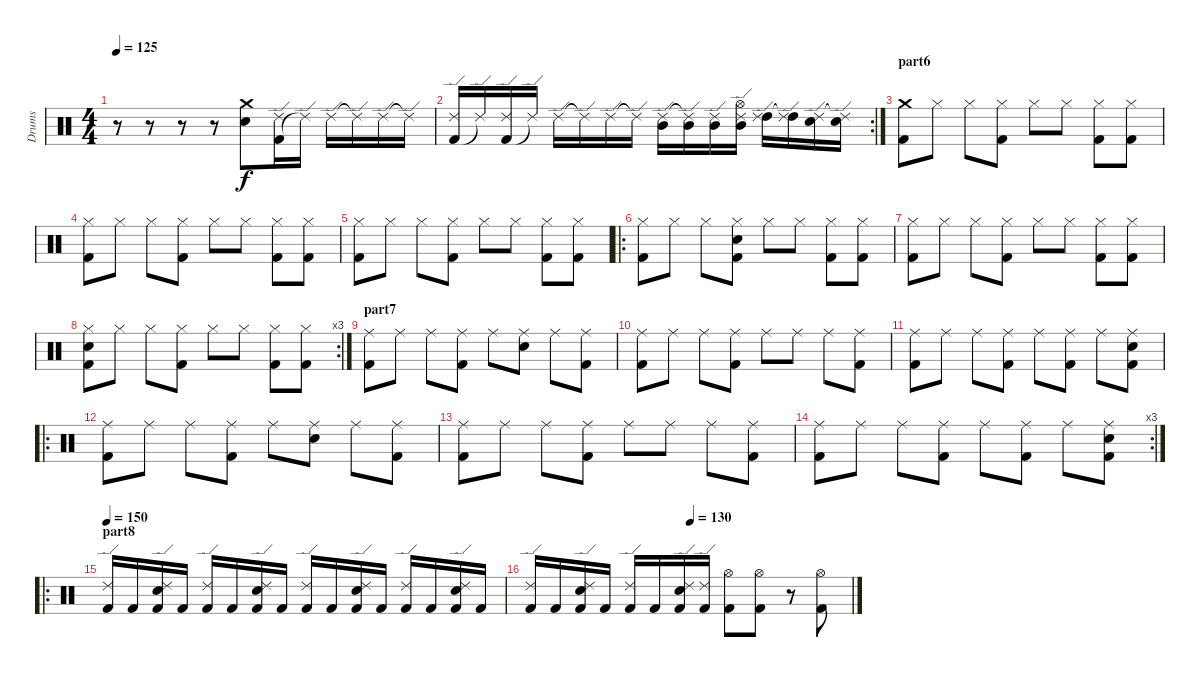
\track ("Drums" "Drums") {instrument percussion}
\staff {score}
\articulation defaults
\ts (4 4)
\tempo 125
\clef neutral
\ks c
r.8{dy f} r.8 r.8 r.8 ("Crash medium (hit)" "Snare (hit) 2").8 ("Kick (hit) 2" "Ride (edge) 2").16 "Ride (edge) 2"{t}.16 "Ride (edge) 2".16 "Ride (edge) 2"{t}.16 "Ride (edge) 2".16 "Ride (edge) 2"{t}.16 |
\rc 2
("Kick (hit) 2" "Ride (edge) 2").16 "Ride (edge) 2"{t}.16 ("Kick (hit) 2" "Ride (edge) 2").16 "Ride (edge) 2"{t}.16 "Ride (edge) 2".16 "Ride (edge) 2"{t}.16 "Ride (edge) 2".16 "Ride (edge) 2"{t}.16 ("Mid Tom (hit)" "Ride (edge) 2").16 ("Mid Tom (hit)" "Ride (edge) 2"{t}).16 ("Mid Tom (hit)" "Ride (edge) 2").16 ("Mid Tom (hit)" "Hi-Hat (open)" "Ride (edge) 2").16 ("High Tom (hit)" "Ride (edge) 2").16 ("High Tom (hit)" "Ride (edge) 2"{t}).16 ("Snare (hit) 2" "Ride (edge) 2").16 ("Snare (hit) 2" "Ride (edge) 2"{t}).16 |
\section ("" "part6")
("Kick (hit) 2" "Crash medium (hit)").8 "Hi-Hat (closed)".8 "Hi-Hat (closed)".8 ("Kick (hit) 2" "Hi-Hat (closed)").8 "Hi-Hat (closed)".8 "Hi-Hat (closed)".8 ("Kick (hit) 2" "Hi-Hat (closed)").8 ("Kick (hit) 2" "Hi-Hat (closed)").8 |
("Kick (hit) 2" "Hi-Hat (closed)").8 "Hi-Hat (closed)".8 "Hi-Hat (closed)".8 ("Kick (hit) 2" "Hi-Hat (closed)").8 "Hi-Hat (closed)".8 "Hi-Hat (closed)".8 ("Kick (hit) 2" "Hi-Hat (closed)").8 ("Kick (hit) 2" "Hi-Hat (closed)").8 |
("Kick (hit) 2" "Hi-Hat (closed)").8 "Hi-Hat (closed)".8 "Hi-Hat (closed)".8 ("Kick (hit) 2" "Hi-Hat (closed)").8 "Hi-Hat (closed)".8 "Hi-Hat (closed)".8 ("Kick (hit) 2" "Hi-Hat (closed)").8 ("Kick (hit) 2" "Hi-Hat (closed)").8 |
\ro
("Kick (hit) 2" "Hi-Hat (closed)").8 "Hi-Hat (closed)".8 "Hi-Hat (closed)".8 ("Kick (hit) 2" "Snare (hit) 2" "Hi-Hat (closed)").8 "Hi-Hat (closed)".8 "Hi-Hat (closed)".8 ("Kick (hit) 2" "Hi-Hat (closed)").8 ("Kick (hit) 2" "Hi-Hat (closed)").8 |
("Kick (hit) 2" "Hi-Hat (closed)").8 "Hi-Hat (closed)".8 "Hi-Hat (closed)".8 ("Kick (hit) 2" "Hi-Hat (closed)").8 "Hi-Hat (closed)".8 "Hi-Hat (closed)".8 ("Kick (hit) 2" "Hi-Hat (closed)").8 ("Kick (hit) 2" "Hi-Hat (closed)").8 |
\rc 3
("Kick (hit) 2" "Snare (hit) 2" "Hi-Hat (closed)").8 "Hi-Hat (closed)".8 "Hi-Hat (closed)".8 ("Kick (hit) 2" "Hi-Hat (closed)").8 "Hi-Hat (closed)".8 "Hi-Hat (closed)".8 ("Kick (hit) 2" "Hi-Hat (closed)").8 ("Kick (hit) 2" "Hi-Hat (closed)").8 |
\section ("" "part7")
("Kick (hit) 2" "Ride (middle)").8 "Ride (middle)".8 "Ride (middle)".8 ("Kick (hit) 2" "Ride (middle)").8 "Ride (middle)".8 ("Snare (hit) 2" "Ride (middle)").8 "Ride (middle)".8 ("Kick (hit) 2" "Ride (middle)").8 |
("Kick (hit) 2" "Ride (middle)").8 "Ride (middle)".8 "Ride (middle)".8 ("Kick (hit) 2" "Ride (middle)").8 "Ride (middle)".8 "Ride (middle)".8 "Ride (middle)".8 ("Kick (hit) 2" "Ride (middle)").8 |
("Kick (hit) 2" "Ride (middle)").8 "Ride (middle)".8 "Ride (middle)".8 ("Kick (hit) 2" "Ride (middle)").8 "Ride (middle)".8 ("Kick (hit) 2" "Ride (middle)").8 "Ride (middle)".8 ("Kick (hit) 2" "Snare (hit) 2" "Ride (middle)").8 |
\ro
("Kick (hit) 2" "Ride (middle)").8 "Ride (middle)".8 "Ride (middle)".8 ("Kick (hit) 2" "Ride (middle)").8 "Ride (middle)".8 ("Snare (hit) 2" "Ride (middle)").8 "Ride (middle)".8 ("Kick (hit) 2" "Ride (middle)").8 |
("Kick (hit) 2" "Ride (middle)").8 "Ride (middle)".8 "Ride (middle)".8 ("Kick (hit) 2" "Ride (middle)").8 "Ride (middle)".8 "Ride (middle)".8 "Ride (middle)".8 ("Kick (hit) 2" "Ride (middle)").8 |
\rc 3
("Kick (hit) 2" "Ride (middle)").8 "Ride (middle)".8 "Ride (middle)".8 ("Kick (hit) 2" "Ride (middle)").8 "Ride (middle)".8 ("Kick (hit) 2" "Ride (middle)").8 "Ride (middle)".8 ("Kick (hit) 2" "Snare (hit) 2" "Ride (middle)").8 |
\ro
\section ("" "part8")
\tempo 150
("Kick (hit) 2" "Ride (edge) 2").16 "Kick (hit) 2".16 ("Kick (hit) 2" "Snare (hit) 2" "Ride (edge) 2").16 "Kick (hit) 2".16 ("Kick (hit) 2" "Ride (edge) 2").16 "Kick (hit) 2".16 ("Kick (hit) 2" "Snare (hit) 2" "Ride (edge) 2").16 "Kick (hit) 2".16 ("Kick (hit) 2" "Ride (edge) 2").16 "Kick (hit) 2".16 ("Kick (hit) 2" "Snare (hit) 2" "Ride (edge) 2").16 "Kick (hit) 2".16 ("Kick (hit) 2" "Ride (edge) 2").16 "Kick (hit) 2".16 ("Kick (hit) 2" "Snare (hit) 2" "Ride (edge) 2").16 "Kick (hit) 2".16 |
\tempo (130 0.5)
("Kick (hit) 2" "Ride (edge) 2").16 "Kick (hit) 2".16 ("Kick (hit) 2" "Snare (hit) 2" "Ride (edge) 2").16 "Kick (hit) 2".16 ("Kick (hit) 2" "Ride (edge) 2").16 "Kick (hit) 2".16 ("Kick (hit) 2" "Snare (hit) 2" "Ride (edge) 2").16 ("Kick (hit) 2" "Ride (edge) 2").16 ("Kick (hit) 2" "Hi-Hat (open)").8 ("Kick (hit) 2" "Hi-Hat (open)").8 r.8 ("Kick (hit) 2" "Hi-Hat (open)").8
